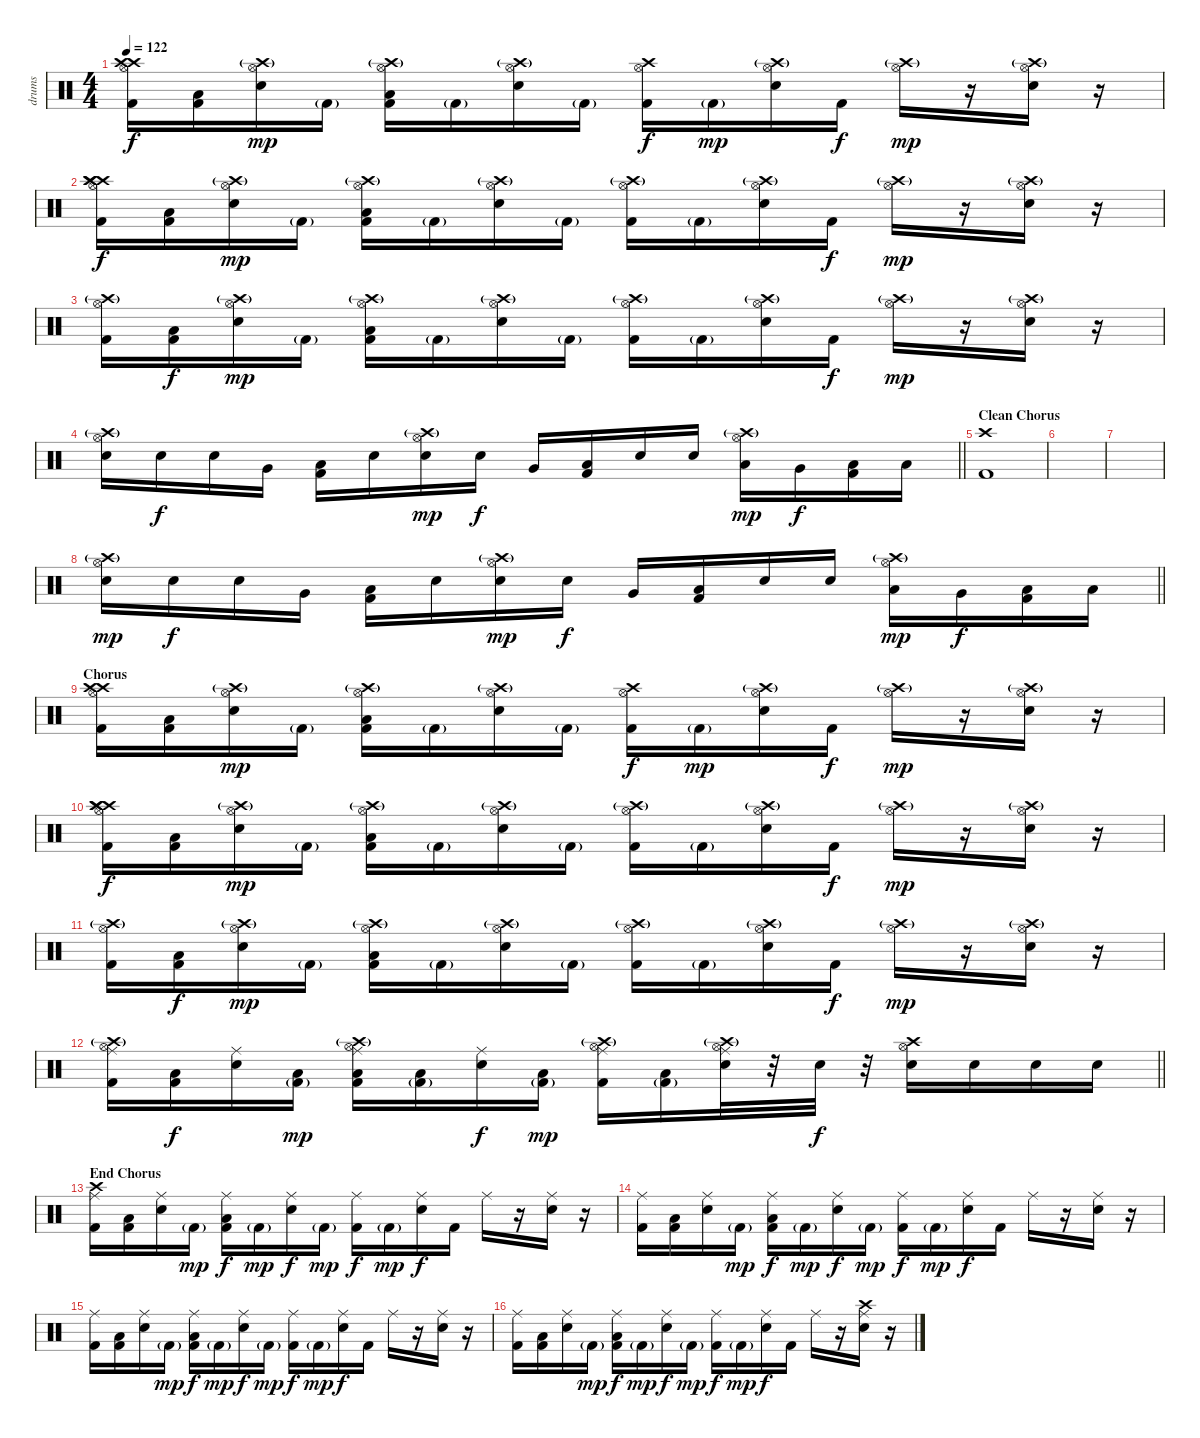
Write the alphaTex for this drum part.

\track ("drums" "drums") {instrument percussion}
\staff {score}
\articulation defaults
\ts (4 4)
\tempo 122
\clef neutral
\ks c
("Crash high (hit)" "Kick (hit) 2" "Crash high (hit)" "Hi-Hat (open)").16{dy f} ("Low Floor Tom (hit)" "Kick (hit) 2").16 ("Snare (hit) 2" "Crash high (hit)"{g} "Hi-Hat (open)").16{dy mp} "Kick (hit) 2"{g}.16{bd 60} ("Kick (hit) 2" "Low Floor Tom (hit)" "Crash high (hit)"{g} "Hi-Hat (open)").16 "Kick (hit) 2"{g}.16{bd 60} ("Snare (hit) 2" "Crash high (hit)"{g} "Hi-Hat (open)").16 "Kick (hit) 2"{g}.16{bu 60} ("Kick (hit) 2" "Crash high (hit)" "Hi-Hat (open)").16{dy f} "Kick (hit) 2"{g}.16{bd 60 dy mp} ("Snare (hit) 2" "Crash high (hit)"{g} "Hi-Hat (open)").16 "Kick (hit) 2".16{dy f} ("Crash high (hit)"{g} "Hi-Hat (open)").16{bd 60 dy mp} r.16 ("Snare (hit) 2" "Crash high (hit)"{g} "Hi-Hat (open)").16{bd 60} r.16 |
("Crash high (hit)" "Kick (hit) 2" "Crash high (hit)" "Crash high (hit)" "Hi-Hat (open)").16{dy f} ("Low Floor Tom (hit)" "Kick (hit) 2").16 ("Snare (hit) 2" "Crash high (hit)"{g} "Hi-Hat (open)").16{dy mp} "Kick (hit) 2"{g}.16{bd 60} ("Kick (hit) 2" "Low Floor Tom (hit)" "Crash high (hit)"{g} "Hi-Hat (open)").16 "Kick (hit) 2"{g}.16{bd 60} ("Snare (hit) 2" "Crash high (hit)"{g} "Hi-Hat (open)").16 "Kick (hit) 2"{g}.16{bu 60} ("Kick (hit) 2" "Crash high (hit)"{g} "Hi-Hat (open)").16 "Kick (hit) 2"{g}.16{bd 60} ("Snare (hit) 2" "Crash high (hit)"{g} "Hi-Hat (open)").16 "Kick (hit) 2".16{dy f} ("Crash high (hit)"{g} "Hi-Hat (open)").16{bd 60 dy mp} r.16 ("Snare (hit) 2" "Crash high (hit)"{g} "Hi-Hat (open)").16{bd 60} r.16 |
("Kick (hit) 2" "Crash high (hit)"{g} "Hi-Hat (open)").16 ("Low Floor Tom (hit)" "Kick (hit) 2").16{dy f} ("Snare (hit) 2" "Crash high (hit)"{g} "Hi-Hat (open)").16{dy mp} "Kick (hit) 2"{g}.16{bd 60} ("Kick (hit) 2" "Low Floor Tom (hit)" "Crash high (hit)"{g} "Hi-Hat (open)").16 "Kick (hit) 2"{g}.16{bd 60} ("Snare (hit) 2" "Crash high (hit)"{g} "Hi-Hat (open)").16 "Kick (hit) 2"{g}.16{bu 60} ("Kick (hit) 2" "Crash high (hit)"{g} "Hi-Hat (open)").16 "Kick (hit) 2"{g}.16{bd 60} ("Snare (hit) 2" "Crash high (hit)"{g} "Hi-Hat (open)").16 "Kick (hit) 2".16{dy f} ("Crash high (hit)"{g} "Hi-Hat (open)").16{bd 60 dy mp} r.16 ("Snare (hit) 2" "Crash high (hit)"{g} "Hi-Hat (open)").16{bd 60} r.16 |
\barLineRight lightlight
("Snare (hit) 2" "Crash high (hit)"{g} "Hi-Hat (open)").16 "Snare (hit) 2".16{dy f} "Snare (hit) 2".16 "Very Low Tom (hit)".16 ("Kick (hit) 2" "Low Floor Tom (hit)").16 "Snare (hit) 2".16 ("Snare (hit) 2" "Crash high (hit)"{g} "Hi-Hat (open)").16{dy mp} "Snare (hit) 2".16{dy f} "Very Low Tom (hit)".16 ("Kick (hit) 2" "Low Tom (hit)").16 "Snare (hit) 2".16 "Snare (hit) 2".16 ("Low Tom (hit)" "Crash high (hit)"{g} "Hi-Hat (open)").16{dy mp} "Very Low Tom (hit)".16{dy f} ("Kick (hit) 2" "Low Floor Tom (hit)").16 "Low Floor Tom (hit)".16 |
\section ("" "Clean Chorus")
("Crash high (hit)" "Kick (hit) 2").1 |
|
|
\barLineRight lightlight
("Snare (hit) 2" "Crash high (hit)"{g} "Hi-Hat (open)").16{dy mp} "Snare (hit) 2".16{dy f} "Snare (hit) 2".16 "Very Low Tom (hit)".16 ("Kick (hit) 2" "Low Floor Tom (hit)").16 "Snare (hit) 2".16 ("Snare (hit) 2" "Crash high (hit)"{g} "Hi-Hat (open)").16{dy mp} "Snare (hit) 2".16{dy f} "Very Low Tom (hit)".16 ("Kick (hit) 2" "Low Tom (hit)").16 "Snare (hit) 2".16 "Snare (hit) 2".16 ("Low Tom (hit)" "Crash high (hit)"{g} "Hi-Hat (open)").16{dy mp} "Very Low Tom (hit)".16{dy f} ("Kick (hit) 2" "Low Floor Tom (hit)").16 "Low Floor Tom (hit)".16 |
\section ("" "Chorus")
("Crash high (hit)" "Kick (hit) 2" "Crash high (hit)" "Hi-Hat (open)").16 ("Low Floor Tom (hit)" "Kick (hit) 2").16 ("Snare (hit) 2" "Crash high (hit)"{g} "Hi-Hat (open)").16{dy mp} "Kick (hit) 2"{g}.16{bd 60} ("Kick (hit) 2" "Low Floor Tom (hit)" "Crash high (hit)"{g} "Hi-Hat (open)").16 "Kick (hit) 2"{g}.16{bd 60} ("Snare (hit) 2" "Crash high (hit)"{g} "Hi-Hat (open)").16 "Kick (hit) 2"{g}.16{bu 60} ("Kick (hit) 2" "Crash high (hit)" "Hi-Hat (open)").16{dy f} "Kick (hit) 2"{g}.16{bd 60 dy mp} ("Snare (hit) 2" "Crash high (hit)"{g} "Hi-Hat (open)").16 "Kick (hit) 2".16{dy f} ("Crash high (hit)"{g} "Hi-Hat (open)").16{bd 60 dy mp} r.16 ("Snare (hit) 2" "Crash high (hit)"{g} "Hi-Hat (open)").16{bd 60} r.16 |
("Crash high (hit)" "Kick (hit) 2" "Crash high (hit)" "Crash high (hit)" "Hi-Hat (open)").16{dy f} ("Low Floor Tom (hit)" "Kick (hit) 2").16 ("Snare (hit) 2" "Crash high (hit)"{g} "Hi-Hat (open)").16{dy mp} "Kick (hit) 2"{g}.16{bd 60} ("Kick (hit) 2" "Low Floor Tom (hit)" "Crash high (hit)"{g} "Hi-Hat (open)").16 "Kick (hit) 2"{g}.16{bd 60} ("Snare (hit) 2" "Crash high (hit)"{g} "Hi-Hat (open)").16 "Kick (hit) 2"{g}.16{bu 60} ("Kick (hit) 2" "Crash high (hit)"{g} "Hi-Hat (open)").16 "Kick (hit) 2"{g}.16{bd 60} ("Snare (hit) 2" "Crash high (hit)"{g} "Hi-Hat (open)").16 "Kick (hit) 2".16{dy f} ("Crash high (hit)"{g} "Hi-Hat (open)").16{bd 60 dy mp} r.16 ("Snare (hit) 2" "Crash high (hit)"{g} "Hi-Hat (open)").16{bd 60} r.16 |
("Kick (hit) 2" "Crash high (hit)"{g} "Hi-Hat (open)").16 ("Low Floor Tom (hit)" "Kick (hit) 2").16{dy f} ("Snare (hit) 2" "Crash high (hit)"{g} "Hi-Hat (open)").16{dy mp} "Kick (hit) 2"{g}.16{bd 60} ("Kick (hit) 2" "Low Floor Tom (hit)" "Crash high (hit)"{g} "Hi-Hat (open)").16 "Kick (hit) 2"{g}.16{bd 60} ("Snare (hit) 2" "Crash high (hit)"{g} "Hi-Hat (open)").16 "Kick (hit) 2"{g}.16{bu 60} ("Kick (hit) 2" "Crash high (hit)"{g} "Hi-Hat (open)").16 "Kick (hit) 2"{g}.16{bd 60} ("Snare (hit) 2" "Crash high (hit)"{g} "Hi-Hat (open)").16 "Kick (hit) 2".16{dy f} ("Crash high (hit)"{g} "Hi-Hat (open)").16{bd 60 dy mp} r.16 ("Snare (hit) 2" "Crash high (hit)"{g} "Hi-Hat (open)").16{bd 60} r.16 |
\barLineRight lightlight
("Hi-Hat (open)" "Kick (hit) 2" "Crash high (hit)"{g} "Ride (middle)").16 ("Low Floor Tom (hit)" "Kick (hit) 2").16{dy f} ("Snare (hit) 2" "Ride (middle)").16 ("Low Floor Tom (hit)" "Kick (hit) 2"{g}).16{bd 60 dy mp} ("Hi-Hat (open)" "Kick (hit) 2" "Low Floor Tom (hit)" "Crash high (hit)"{g} "Ride (middle)").16 ("Low Floor Tom (hit)" "Kick (hit) 2"{g}).16{bd 60} ("Snare (hit) 2" "Ride (middle)").16{dy f} ("Low Floor Tom (hit)" "Kick (hit) 2"{g}).16{bu 60 dy mp} ("Hi-Hat (open)" "Kick (hit) 2" "Crash high (hit)"{g} "Ride (middle)").16 ("Low Floor Tom (hit)" "Kick (hit) 2"{g}).16{bd 60} ("Hi-Hat (open)" "Snare (hit) 2" "Crash high (hit)"{g} "Ride (middle)").32 r.32 "Snare (hit) 2".32{dy f} r.32 ("Hi-Hat (open)" "Snare (hit) 2" "Crash high (hit)").16 "Snare (hit) 2".16 "Snare (hit) 2".16 "Snare (hit) 2".16 |
\section ("" "End Chorus")
("Crash high (hit)" "Kick (hit) 2" "Ride (middle)").16 ("Low Floor Tom (hit)" "Kick (hit) 2").16 ("Snare (hit) 2" "Ride (middle)").16 "Kick (hit) 2"{g}.16{bd 60 dy mp} ("Kick (hit) 2" "Low Floor Tom (hit)" "Ride (middle)").16{dy f} "Kick (hit) 2"{g}.16{bd 60 dy mp} ("Snare (hit) 2" "Ride (middle)").16{dy f} "Kick (hit) 2"{g}.16{bu 60 dy mp} ("Kick (hit) 2" "Ride (middle)").16{dy f} "Kick (hit) 2"{g}.16{bd 60 dy mp} ("Snare (hit) 2" "Ride (middle)").16{dy f} "Kick (hit) 2".16 "Ride (middle)".16{bd 60} r.16 ("Snare (hit) 2" "Ride (middle)").16{bd 60} r.16 |
("Kick (hit) 2" "Ride (middle)").16 ("Low Floor Tom (hit)" "Kick (hit) 2").16 ("Snare (hit) 2" "Ride (middle)").16 "Kick (hit) 2"{g}.16{bd 60 dy mp} ("Kick (hit) 2" "Low Floor Tom (hit)" "Ride (middle)").16{dy f} "Kick (hit) 2"{g}.16{bd 60 dy mp} ("Snare (hit) 2" "Ride (middle)").16{dy f} "Kick (hit) 2"{g}.16{bu 60 dy mp} ("Kick (hit) 2" "Ride (middle)").16{dy f} "Kick (hit) 2"{g}.16{bd 60 dy mp} ("Snare (hit) 2" "Ride (middle)").16{dy f} "Kick (hit) 2".16 "Ride (middle)".16{bd 60} r.16 ("Snare (hit) 2" "Ride (middle)").16{bd 60} r.16 |
("Kick (hit) 2" "Ride (middle)").16 ("Low Floor Tom (hit)" "Kick (hit) 2").16 ("Snare (hit) 2" "Ride (middle)").16 "Kick (hit) 2"{g}.16{bd 60 dy mp} ("Kick (hit) 2" "Low Floor Tom (hit)" "Ride (middle)").16{dy f} "Kick (hit) 2"{g}.16{bd 60 dy mp} ("Snare (hit) 2" "Ride (middle)").16{dy f} "Kick (hit) 2"{g}.16{bu 60 dy mp} ("Kick (hit) 2" "Ride (middle)").16{dy f} "Kick (hit) 2"{g}.16{bd 60 dy mp} ("Snare (hit) 2" "Ride (middle)").16{dy f} "Kick (hit) 2".16 "Ride (middle)".16{bd 60} r.16 ("Snare (hit) 2" "Ride (middle)").16{bd 60} r.16 |
("Kick (hit) 2" "Ride (middle)").16 ("Low Floor Tom (hit)" "Kick (hit) 2").16 ("Snare (hit) 2" "Ride (middle)").16 "Kick (hit) 2"{g}.16{bd 60 dy mp} ("Kick (hit) 2" "Low Floor Tom (hit)" "Ride (middle)").16{dy f} "Kick (hit) 2"{g}.16{bd 60 dy mp} ("Snare (hit) 2" "Ride (middle)").16{dy f} "Kick (hit) 2"{g}.16{bu 60 dy mp} ("Kick (hit) 2" "Ride (middle)").16{dy f} "Kick (hit) 2"{g}.16{bd 60 dy mp} ("Snare (hit) 2" "Ride (middle)").16{dy f} "Kick (hit) 2".16 "Ride (middle)".16{bd 60} r.16 ("Crash high (hit)" "Snare (hit) 2" "Ride (middle)").16{bd 60} r.16
